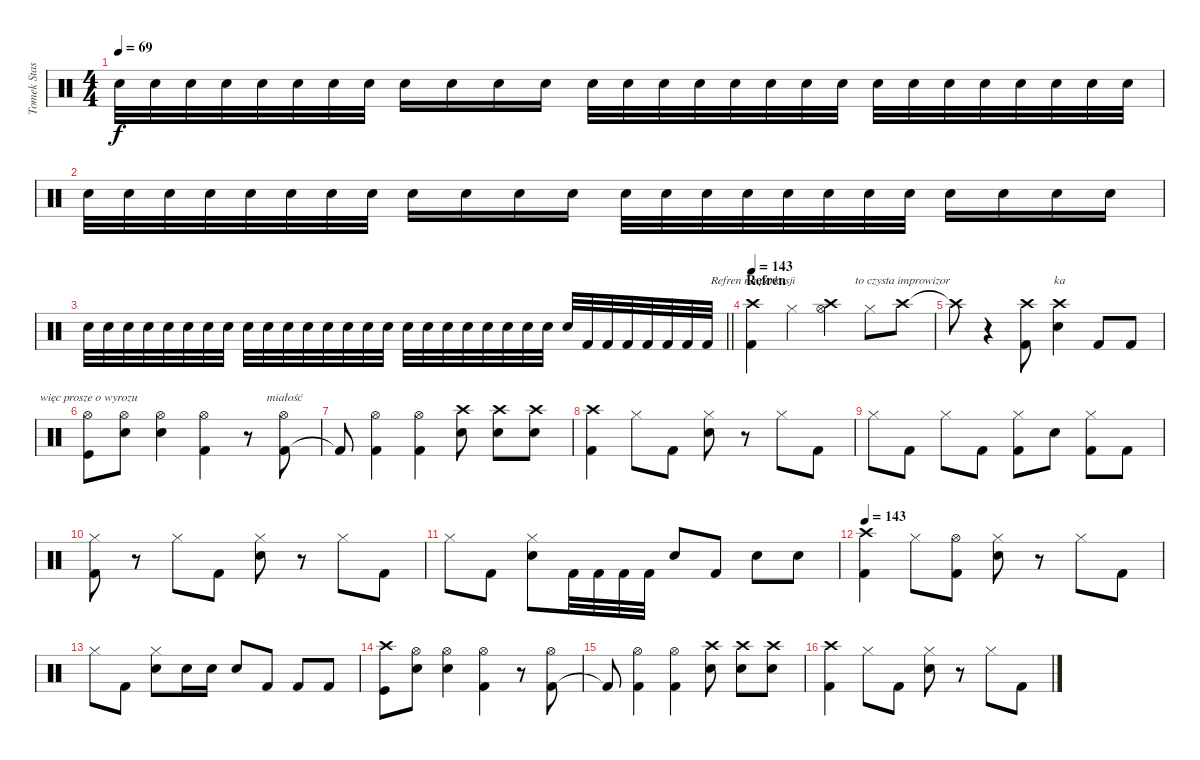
\track ("Tomek Stasiak" "Tomek Stas") {instrument percussion}
\staff {score}
\articulation defaults
\chord ("Refren na perkusji") {firstfret 20}
\chord ("to czysta improwizor") {firstfret 20}
\chord ("ka ") {firstfret 20}
\chord ("więc prosze o wyrozu") {firstfret 20}
\chord ("miałość") {firstfret 20}
\ts (4 4)
\tempo 69
\clef neutral
\ks c "Snare (hit) 2".32{dy f volume 10} "Snare (hit) 2".32{volume 7} "Snare (hit) 2".32 "Snare (hit) 2".32 "Snare (hit) 2".32 "Snare (hit) 2".32 "Snare (hit) 2".32 "Snare (hit) 2".32 "Snare (hit) 2".16 "Snare (hit) 2".16 "Snare (hit) 2".16 "Snare (hit) 2".16 "Snare (hit) 2".32{volume 10} "Snare (hit) 2".32{volume 7} "Snare (hit) 2".32 "Snare (hit) 2".32 "Snare (hit) 2".32 "Snare (hit) 2".32 "Snare (hit) 2".32 "Snare (hit) 2".32 "Snare (hit) 2".32{volume 10} "Snare (hit) 2".32{volume 7} "Snare (hit) 2".32 "Snare (hit) 2".32 "Snare (hit) 2".32 "Snare (hit) 2".32 "Snare (hit) 2".32 "Snare (hit) 2".32
|
"Snare (hit) 2".32{volume 10} "Snare (hit) 2".32{volume 7} "Snare (hit) 2".32 "Snare (hit) 2".32 "Snare (hit) 2".32 "Snare (hit) 2".32 "Snare (hit) 2".32 "Snare (hit) 2".32 "Snare (hit) 2".16 "Snare (hit) 2".16 "Snare (hit) 2".16 "Snare (hit) 2".16 "Snare (hit) 2".32{volume 10} "Snare (hit) 2".32{volume 7} "Snare (hit) 2".32 "Snare (hit) 2".32 "Snare (hit) 2".32 "Snare (hit) 2".32 "Snare (hit) 2".32 "Snare (hit) 2".32 "Snare (hit) 2".16 "Snare (hit) 2".16 "Snare (hit) 2".16 "Snare (hit) 2".16 |
\barLineRight lightlight "Snare (hit) 2".32{volume 7} "Snare (hit) 2".32{volume 16} "Snare (hit) 2".32 "Snare (hit) 2".32 "Snare (hit) 2".32 "Snare (hit) 2".32 "Snare (hit) 2".32 "Snare (hit) 2".32 "Snare (hit) 2".32 "Snare (hit) 2".32 "Snare (hit) 2".32 "Snare (hit) 2".32 "Snare (hit) 2".32 "Snare (hit) 2".32 "Snare (hit) 2".32 "Snare (hit) 2".32 "Snare (hit) 2".32 "Electric Snare (hit)".32 "Electric Snare (hit)".32 "Electric Snare (hit)".32 "Electric Snare (hit)".32 "Electric Snare (hit)".32 "Electric Snare (hit)".32 "Electric Snare (hit)".32 "Electric Snare (hit)".32 "Kick (hit) 2".32 "Kick (hit) 2".32 "Kick (hit) 2".32 "Kick (hit) 2".32 "Kick (hit) 2".32 "Kick (hit) 2".32 "Kick (hit) 2".32
|
\section ("" "Refren")
\tempo 143
("Crash high (hit)" "Kick (hit) 2").4{ch "Refren na perkusji"} "Hi-Hat (closed)".4 ("Crash high (hit)" "Hi-Hat (open)").4 "Hi-Hat (closed)".8 "Crash high (hit)".8{ch "to czysta improwizor"} |
"Crash high (hit)"{t}.8 r.4 ("Kick (hit) 2" "Crash high (hit)").8 ("Snare (hit) 2" "Crash high (hit)").4{ch "ka "} "Kick (hit) 2".8 "Kick (hit) 2".8 |
("Kick (hit)" "Hi-Hat (open)").8{ch "więc prosze o wyrozu"} ("Snare (hit) 2" "Hi-Hat (open)").8 ("Snare (hit) 2" "Hi-Hat (open)").4 ("Kick (hit) 2" "Hi-Hat (open)").4 r.8 ("Kick (hit) 2" "Hi-Hat (open)").8{ch "miałość"} |
"Kick (hit) 2"{t}.8 ("Kick (hit) 2" "Hi-Hat (open)").4 ("Kick (hit) 2" "Hi-Hat (open)").4 ("Crash high (hit)" "Snare (hit) 2").8 ("Crash high (hit)" "Snare (hit) 2").8 ("Crash high (hit)" "Snare (hit) 2").8 |
("Crash high (hit)" "Kick (hit) 2").4 "Hi-Hat (closed)".8 "Kick (hit) 2".8 ("Hi-Hat (closed)" "Snare (hit) 2").8 r.8 "Hi-Hat (closed)".8 "Kick (hit) 2".8 |
"Hi-Hat (closed)".8 "Kick (hit) 2".8 "Hi-Hat (closed)".8 "Kick (hit) 2".8 ("Hi-Hat (closed)" "Kick (hit) 2").8 "Snare (hit) 2".8 ("Hi-Hat (closed)" "Kick (hit) 2").8 "Kick (hit) 2".8 |
("Hi-Hat (closed)" "Kick (hit) 2").8 r.8 "Hi-Hat (closed)".8 "Kick (hit) 2".8 ("Hi-Hat (closed)" "Snare (hit) 2").8 r.8 "Hi-Hat (closed)".8 "Kick (hit) 2".8 |
"Hi-Hat (closed)".8 "Kick (hit) 2".8 ("Hi-Hat (closed)" "Snare (hit) 2").8 "Kick (hit) 2".32 "Kick (hit) 2".32 "Kick (hit) 2".32 "Kick (hit) 2".32 "Snare (hit) 2".8 "Kick (hit) 2".8 "Snare (hit) 2".8 "Snare (hit) 2".8 |
\tempo 143
("Crash high (hit)" "Kick (hit) 2").4 "Hi-Hat (closed)".8 ("Hi-Hat (open)" "Kick (hit) 2").8 ("Hi-Hat (closed)" "Snare (hit) 2").8 r.8 "Hi-Hat (closed)".8 "Kick (hit) 2".8 |
"Hi-Hat (closed)".8 "Kick (hit) 2".8 ("Hi-Hat (closed)" "Snare (hit) 2").8 "Electric Snare (hit)".16 "Electric Snare (hit)".16 "Electric Snare (hit)".8 "Kick (hit) 2".8 "Kick (hit) 2".8 "Kick (hit) 2".8 |
("Kick (hit)" "Crash high (hit)").8 ("Snare (hit) 2" "Hi-Hat (open)").8 ("Snare (hit) 2" "Hi-Hat (open)").4 ("Kick (hit) 2" "Hi-Hat (open)").4 r.8 ("Kick (hit) 2" "Hi-Hat (open)").8 |
"Kick (hit) 2"{t}.8 ("Kick (hit) 2" "Hi-Hat (open)").4 ("Kick (hit) 2" "Hi-Hat (open)").4 ("Crash high (hit)" "Snare (hit) 2").8 ("Crash high (hit)" "Snare (hit) 2").8 ("Crash high (hit)" "Snare (hit) 2").8 |
("Crash high (hit)" "Kick (hit) 2").4 "Hi-Hat (closed)".8 "Kick (hit) 2".8 ("Hi-Hat (closed)" "Snare (hit) 2").8 r.8 "Hi-Hat (closed)".8 "Kick (hit) 2".8
